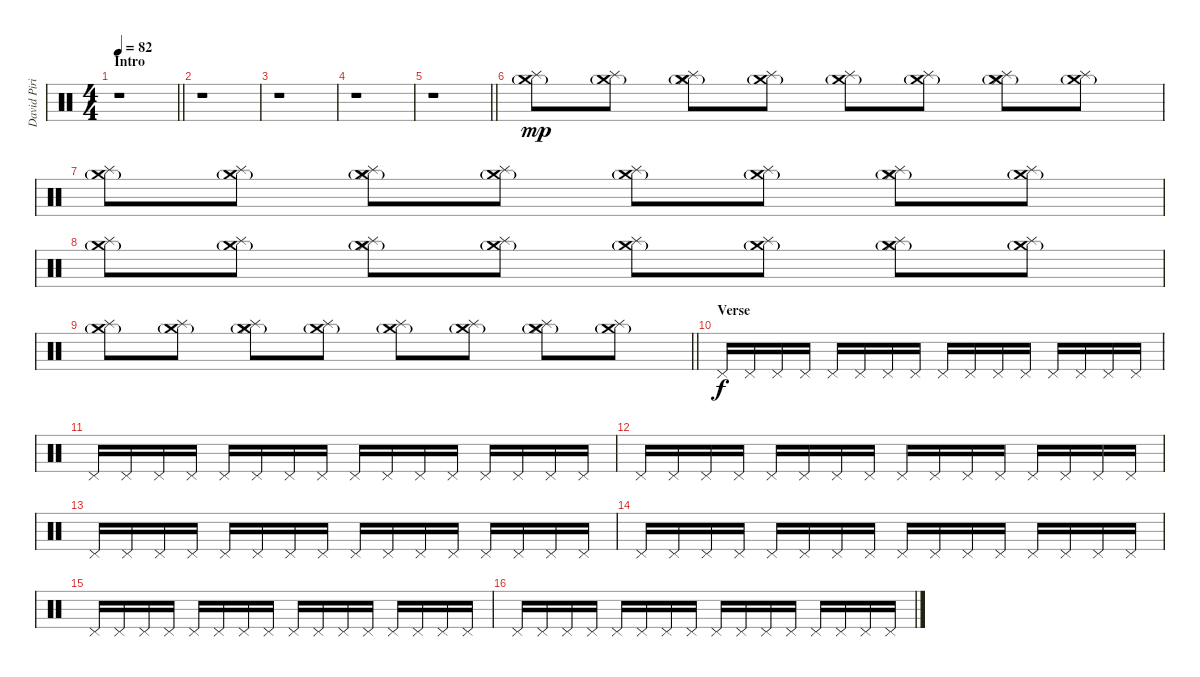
\track ("David Piribauer (Drums)" "David Piri") {instrument percussion}
\staff {score}
\articulation defaults
\ts (4 4)
\section ("" "Intro")
\tempo 82
\clef neutral
\barLineRight lightlight
\ks c
r.1{dy mp} |
r.1 |
r.1 |
r.1 |
\barLineRight lightlight
r.1 |
("Crash medium (hit)"{g} "Splash (hit)").8 ("Crash medium (hit)"{g} "Splash (hit)").8 ("Crash medium (hit)"{g} "Splash (hit)" "Hi-Hat (closed)").8 ("Crash medium (hit)"{g} "Splash (hit)").8 ("Crash medium (hit)"{g} "Splash (hit)").8 ("Crash medium (hit)"{g} "Splash (hit)").8 ("Crash medium (hit)"{g} "Splash (hit)" "Hi-Hat (closed)").8 ("Crash medium (hit)"{g} "Splash (hit)").8 |
("Crash medium (hit)"{g} "Splash (hit)").8 ("Crash medium (hit)"{g} "Splash (hit)").8 ("Crash medium (hit)"{g} "Splash (hit)" "Hi-Hat (closed)").8 ("Crash medium (hit)"{g} "Splash (hit)").8 ("Crash medium (hit)"{g} "Splash (hit)").8 ("Crash medium (hit)"{g} "Splash (hit)").8 ("Crash medium (hit)"{g} "Splash (hit)" "Hi-Hat (closed)").8 ("Crash medium (hit)"{g} "Splash (hit)").8 |
("Crash medium (hit)"{g} "Splash (hit)").8 ("Crash medium (hit)"{g} "Splash (hit)").8 ("Crash medium (hit)"{g} "Splash (hit)" "Hi-Hat (closed)").8 ("Crash medium (hit)"{g} "Splash (hit)").8 ("Crash medium (hit)"{g} "Splash (hit)").8 ("Crash medium (hit)"{g} "Splash (hit)").8 ("Crash medium (hit)"{g} "Splash (hit)" "Hi-Hat (closed)").8 ("Crash medium (hit)"{g} "Splash (hit)").8 |
\barLineRight lightlight
("Crash medium (hit)"{g} "Splash (hit)").8 ("Crash medium (hit)"{g} "Splash (hit)").8 ("Crash medium (hit)"{g} "Splash (hit)" "Hi-Hat (closed)").8 ("Crash medium (hit)"{g} "Splash (hit)").8 ("Crash medium (hit)"{g} "Splash (hit)").8 ("Crash medium (hit)"{g} "Splash (hit)").8 ("Crash medium (hit)"{g} "Splash (hit)" "Hi-Hat (closed)").8 ("Crash medium (hit)"{g} "Splash (hit)").8 |
\section ("" "Verse")
"Pedal Hi-Hat (hit)".16{dy f} "Pedal Hi-Hat (hit)".16 "Pedal Hi-Hat (hit)".16 "Pedal Hi-Hat (hit)".16 "Pedal Hi-Hat (hit)".16 "Pedal Hi-Hat (hit)".16 "Pedal Hi-Hat (hit)".16 "Pedal Hi-Hat (hit)".16 "Pedal Hi-Hat (hit)".16 "Pedal Hi-Hat (hit)".16 "Pedal Hi-Hat (hit)".16 "Pedal Hi-Hat (hit)".16 "Pedal Hi-Hat (hit)".16 "Pedal Hi-Hat (hit)".16 "Pedal Hi-Hat (hit)".16 "Pedal Hi-Hat (hit)".16 |
"Pedal Hi-Hat (hit)".16 "Pedal Hi-Hat (hit)".16 "Pedal Hi-Hat (hit)".16 "Pedal Hi-Hat (hit)".16 "Pedal Hi-Hat (hit)".16 "Pedal Hi-Hat (hit)".16 "Pedal Hi-Hat (hit)".16 "Pedal Hi-Hat (hit)".16 "Pedal Hi-Hat (hit)".16 "Pedal Hi-Hat (hit)".16 "Pedal Hi-Hat (hit)".16 "Pedal Hi-Hat (hit)".16 "Pedal Hi-Hat (hit)".16 "Pedal Hi-Hat (hit)".16 "Pedal Hi-Hat (hit)".16 "Pedal Hi-Hat (hit)".16 |
"Pedal Hi-Hat (hit)".16 "Pedal Hi-Hat (hit)".16 "Pedal Hi-Hat (hit)".16 "Pedal Hi-Hat (hit)".16 "Pedal Hi-Hat (hit)".16 "Pedal Hi-Hat (hit)".16 "Pedal Hi-Hat (hit)".16 "Pedal Hi-Hat (hit)".16 "Pedal Hi-Hat (hit)".16 "Pedal Hi-Hat (hit)".16 "Pedal Hi-Hat (hit)".16 "Pedal Hi-Hat (hit)".16 "Pedal Hi-Hat (hit)".16 "Pedal Hi-Hat (hit)".16 "Pedal Hi-Hat (hit)".16 "Pedal Hi-Hat (hit)".16 |
"Pedal Hi-Hat (hit)".16 "Pedal Hi-Hat (hit)".16 "Pedal Hi-Hat (hit)".16 "Pedal Hi-Hat (hit)".16 "Pedal Hi-Hat (hit)".16 "Pedal Hi-Hat (hit)".16 "Pedal Hi-Hat (hit)".16 "Pedal Hi-Hat (hit)".16 "Pedal Hi-Hat (hit)".16 "Pedal Hi-Hat (hit)".16 "Pedal Hi-Hat (hit)".16 "Pedal Hi-Hat (hit)".16 "Pedal Hi-Hat (hit)".16 "Pedal Hi-Hat (hit)".16 "Pedal Hi-Hat (hit)".16 "Pedal Hi-Hat (hit)".16 |
"Pedal Hi-Hat (hit)".16 "Pedal Hi-Hat (hit)".16 "Pedal Hi-Hat (hit)".16 "Pedal Hi-Hat (hit)".16 "Pedal Hi-Hat (hit)".16 "Pedal Hi-Hat (hit)".16 "Pedal Hi-Hat (hit)".16 "Pedal Hi-Hat (hit)".16 "Pedal Hi-Hat (hit)".16 "Pedal Hi-Hat (hit)".16 "Pedal Hi-Hat (hit)".16 "Pedal Hi-Hat (hit)".16 "Pedal Hi-Hat (hit)".16 "Pedal Hi-Hat (hit)".16 "Pedal Hi-Hat (hit)".16 "Pedal Hi-Hat (hit)".16 |
"Pedal Hi-Hat (hit)".16 "Pedal Hi-Hat (hit)".16 "Pedal Hi-Hat (hit)".16 "Pedal Hi-Hat (hit)".16 "Pedal Hi-Hat (hit)".16 "Pedal Hi-Hat (hit)".16 "Pedal Hi-Hat (hit)".16 "Pedal Hi-Hat (hit)".16 "Pedal Hi-Hat (hit)".16 "Pedal Hi-Hat (hit)".16 "Pedal Hi-Hat (hit)".16 "Pedal Hi-Hat (hit)".16 "Pedal Hi-Hat (hit)".16 "Pedal Hi-Hat (hit)".16 "Pedal Hi-Hat (hit)".16 "Pedal Hi-Hat (hit)".16 |
"Pedal Hi-Hat (hit)".16 "Pedal Hi-Hat (hit)".16 "Pedal Hi-Hat (hit)".16 "Pedal Hi-Hat (hit)".16 "Pedal Hi-Hat (hit)".16 "Pedal Hi-Hat (hit)".16 "Pedal Hi-Hat (hit)".16 "Pedal Hi-Hat (hit)".16 "Pedal Hi-Hat (hit)".16 "Pedal Hi-Hat (hit)".16 "Pedal Hi-Hat (hit)".16 "Pedal Hi-Hat (hit)".16 "Pedal Hi-Hat (hit)".16 "Pedal Hi-Hat (hit)".16 "Pedal Hi-Hat (hit)".16 "Pedal Hi-Hat (hit)".16
